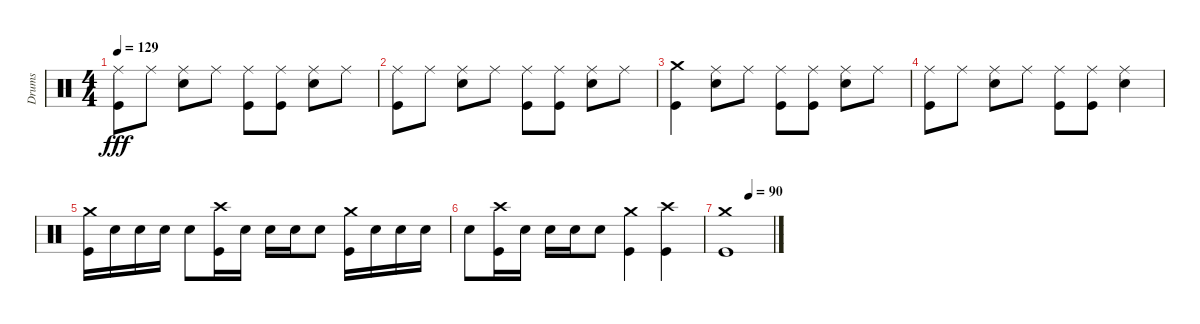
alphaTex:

\track ("Drums" "Drums") {instrument percussion}
\staff {score}
\articulation defaults
\ts (4 4)
\tempo 129
\clef neutral
\ks c
("Ride (middle)" "Kick (hit)").8{dy fff} "Ride (middle)".8 ("Ride (middle)" "Snare (hit) 2").8 "Ride (middle)".8 ("Ride (middle)" "Kick (hit)").8 ("Ride (middle)" "Kick (hit)").8 ("Ride (middle)" "Snare (hit) 2").8 "Ride (middle)".8 |
("Ride (middle)" "Kick (hit)").8 "Ride (middle)".8 ("Ride (middle)" "Snare (hit) 2").8 "Ride (middle)".8 ("Ride (middle)" "Kick (hit)").8 ("Ride (middle)" "Kick (hit)").8 ("Ride (middle)" "Snare (hit) 2").8 "Ride (middle)".8 |
("Crash medium (hit)" "Kick (hit)").4 ("Ride (middle)" "Snare (hit) 2").8 "Ride (middle)".8 ("Ride (middle)" "Kick (hit)").8 ("Ride (middle)" "Kick (hit)").8 ("Ride (middle)" "Snare (hit) 2").8 "Ride (middle)".8 |
("Ride (middle)" "Kick (hit)").8 "Ride (middle)".8 ("Ride (middle)" "Snare (hit) 2").8 "Ride (middle)".8 ("Ride (middle)" "Kick (hit)").8 ("Ride (middle)" "Kick (hit)").8 ("Ride (middle)" "Snare (hit) 2").4 |
("Crash medium (hit)" "Kick (hit)").16 "Snare (hit) 2".16 "Snare (hit) 2".16 "Snare (hit) 2".16 "Snare (hit) 2".8 ("Crash high (hit)" "Kick (hit)").16 "Snare (hit) 2".16 "Snare (hit) 2".16 "Snare (hit) 2".16 "Snare (hit) 2".8 ("Crash medium (hit)" "Kick (hit)").16 "Snare (hit) 2".16 "Snare (hit) 2".16 "Snare (hit) 2".16 |
"Snare (hit) 2".8 ("Crash high (hit)" "Kick (hit)").16 "Snare (hit) 2".16 "Snare (hit) 2".16 "Snare (hit) 2".16 "Snare (hit) 2".8 ("Crash medium (hit)" "Kick (hit)").4 ("Crash high (hit)" "Kick (hit)").4 |
\tempo (90 0.5)
("Crash medium (hit)" "Kick (hit)").1
